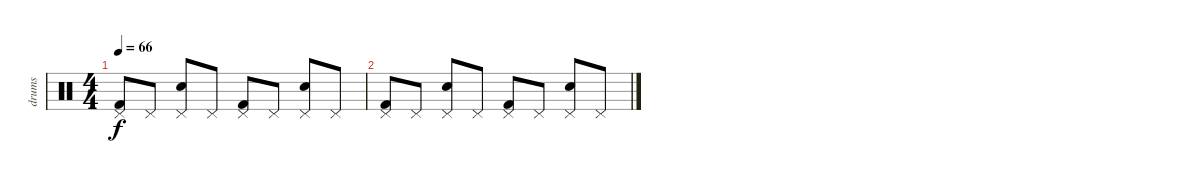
\track ("drums" "drums") {instrument percussion}
\staff {score}
\articulation defaults
\ts (4 4)
\tempo 66
\clef neutral
\ks c
("Kick (hit) 2" "Pedal Hi-Hat (hit)").8{dy f} "Pedal Hi-Hat (hit)".8 ("Snare (hit) 2" "Pedal Hi-Hat (hit)").8 "Pedal Hi-Hat (hit)".8 ("Kick (hit) 2" "Pedal Hi-Hat (hit)").8 "Pedal Hi-Hat (hit)".8 ("Snare (hit) 2" "Pedal Hi-Hat (hit)").8 "Pedal Hi-Hat (hit)".8 |
("Kick (hit) 2" "Pedal Hi-Hat (hit)").8 "Pedal Hi-Hat (hit)".8 ("Snare (hit) 2" "Pedal Hi-Hat (hit)").8 "Pedal Hi-Hat (hit)".8 ("Kick (hit) 2" "Pedal Hi-Hat (hit)").8 "Pedal Hi-Hat (hit)".8 ("Snare (hit) 2" "Pedal Hi-Hat (hit)").8 "Pedal Hi-Hat (hit)".8
